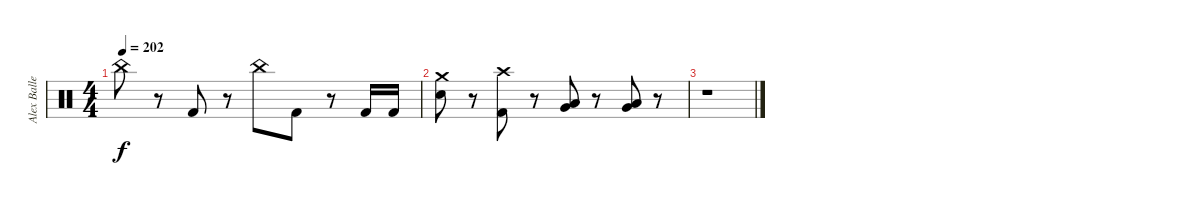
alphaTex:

\track ("Alex Ballew" "Alex Balle") {instrument percussion}
\staff {score}
\articulation defaults
\ts (4 4)
\tempo 202
\clef neutral
\ks c "China (hit)".8{dy f}
r.8 "Kick (hit) 2".8 r.8 "China (hit)".8 "Kick (hit) 2".8 r.8 "Kick (hit) 2".16 "Kick (hit) 2".16 |
("Crash medium (hit)" "Electric Snare (hit)").8 r.8 ("Crash high (hit)" "Kick (hit) 2").8 r.8 ("Low Tom (hit)" "Very Low Tom (hit)").8 r.8 ("Low Tom (hit)" "Very Low Tom (hit)").8 r.8 |
r.1
